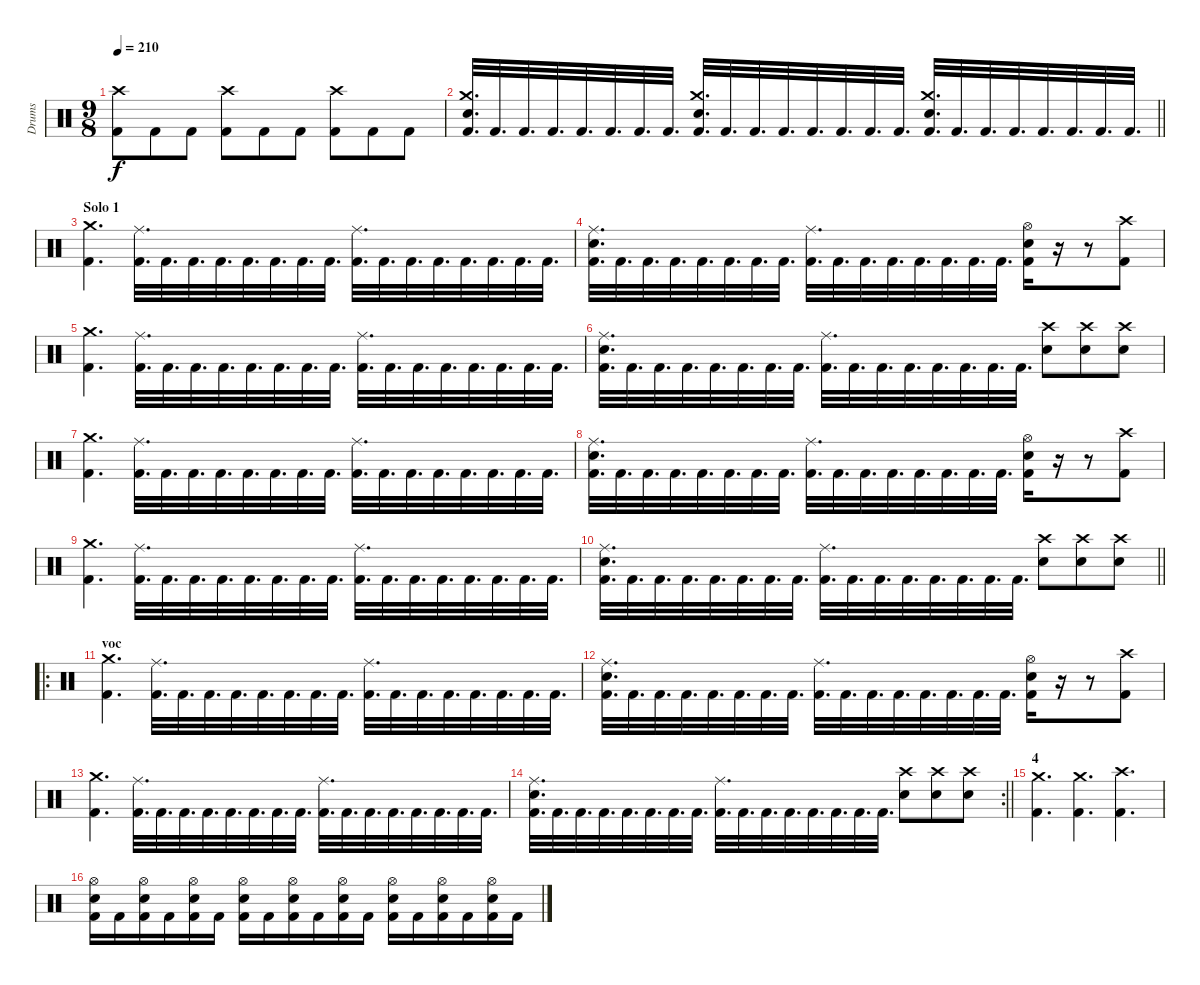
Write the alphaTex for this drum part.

\track ("Drums" "Drums") {instrument percussion}
\staff {score}
\articulation defaults
\ts (9 8)
\tempo 210
\clef neutral
\ks c
("Crash high (hit)" "Kick (hit) 2").8{dy f} "Kick (hit) 2".8 "Kick (hit) 2".8 ("Crash high (hit)" "Kick (hit) 2").8 "Kick (hit) 2".8 "Kick (hit) 2".8 ("Crash high (hit)" "Kick (hit) 2").8 "Kick (hit) 2".8 "Kick (hit) 2".8 |
\barLineRight lightlight
("Crash medium (hit)" "Electric Snare (hit)" "Kick (hit) 2").32{d} "Kick (hit) 2".32{d} "Kick (hit) 2".32{d} "Kick (hit) 2".32{d} "Kick (hit) 2".32{d} "Kick (hit) 2".32{d} "Kick (hit) 2".32{d} "Kick (hit) 2".32{d} ("Crash medium (hit)" "Electric Snare (hit)" "Kick (hit) 2").32{d} "Kick (hit) 2".32{d} "Kick (hit) 2".32{d} "Kick (hit) 2".32{d} "Kick (hit) 2".32{d} "Kick (hit) 2".32{d} "Kick (hit) 2".32{d} "Kick (hit) 2".32{d} ("Crash medium (hit)" "Electric Snare (hit)" "Kick (hit) 2").32{d} "Kick (hit) 2".32{d} "Kick (hit) 2".32{d} "Kick (hit) 2".32{d} "Kick (hit) 2".32{d} "Kick (hit) 2".32{d} "Kick (hit) 2".32{d} "Kick (hit) 2".32{d} |
\section ("" "Solo 1")
("Crash medium (hit)" "Kick (hit) 2").4{d} ("Ride (middle)" "Kick (hit) 2").32{d} "Kick (hit) 2".32{d} "Kick (hit) 2".32{d} "Kick (hit) 2".32{d} "Kick (hit) 2".32{d} "Kick (hit) 2".32{d} "Kick (hit) 2".32{d} "Kick (hit) 2".32{d} ("Ride (middle)" "Kick (hit) 2").32{d} "Kick (hit) 2".32{d} "Kick (hit) 2".32{d} "Kick (hit) 2".32{d} "Kick (hit) 2".32{d} "Kick (hit) 2".32{d} "Kick (hit) 2".32{d} "Kick (hit) 2".32{d} |
("Ride (middle)" "Electric Snare (hit)" "Kick (hit) 2").32{d} "Kick (hit) 2".32{d} "Kick (hit) 2".32{d} "Kick (hit) 2".32{d} "Kick (hit) 2".32{d} "Kick (hit) 2".32{d} "Kick (hit) 2".32{d} "Kick (hit) 2".32{d} ("Ride (middle)" "Kick (hit) 2").32{d} "Kick (hit) 2".32{d} "Kick (hit) 2".32{d} "Kick (hit) 2".32{d} "Kick (hit) 2".32{d} "Kick (hit) 2".32{d} "Kick (hit) 2".32{d} "Kick (hit) 2".32{d} ("Hi-Hat (open)" "Electric Snare (hit)" "Kick (hit) 2").16 r.16 r.8 ("Crash high (hit)" "Kick (hit) 2").8 |
("Crash medium (hit)" "Kick (hit) 2").4{d} ("Ride (middle)" "Kick (hit) 2").32{d} "Kick (hit) 2".32{d} "Kick (hit) 2".32{d} "Kick (hit) 2".32{d} "Kick (hit) 2".32{d} "Kick (hit) 2".32{d} "Kick (hit) 2".32{d} "Kick (hit) 2".32{d} ("Ride (middle)" "Kick (hit) 2").32{d} "Kick (hit) 2".32{d} "Kick (hit) 2".32{d} "Kick (hit) 2".32{d} "Kick (hit) 2".32{d} "Kick (hit) 2".32{d} "Kick (hit) 2".32{d} "Kick (hit) 2".32{d} |
("Ride (middle)" "Electric Snare (hit)" "Kick (hit) 2").32{d} "Kick (hit) 2".32{d} "Kick (hit) 2".32{d} "Kick (hit) 2".32{d} "Kick (hit) 2".32{d} "Kick (hit) 2".32{d} "Kick (hit) 2".32{d} "Kick (hit) 2".32{d} ("Ride (middle)" "Kick (hit) 2").32{d} "Kick (hit) 2".32{d} "Kick (hit) 2".32{d} "Kick (hit) 2".32{d} "Kick (hit) 2".32{d} "Kick (hit) 2".32{d} "Kick (hit) 2".32{d} "Kick (hit) 2".32{d} ("Crash high (hit)" "Electric Snare (hit)").8 ("Crash high (hit)" "Electric Snare (hit)").8 ("Crash high (hit)" "Electric Snare (hit)").8 |
("Crash medium (hit)" "Kick (hit) 2").4{d} ("Ride (middle)" "Kick (hit) 2").32{d} "Kick (hit) 2".32{d} "Kick (hit) 2".32{d} "Kick (hit) 2".32{d} "Kick (hit) 2".32{d} "Kick (hit) 2".32{d} "Kick (hit) 2".32{d} "Kick (hit) 2".32{d} ("Ride (middle)" "Kick (hit) 2").32{d} "Kick (hit) 2".32{d} "Kick (hit) 2".32{d} "Kick (hit) 2".32{d} "Kick (hit) 2".32{d} "Kick (hit) 2".32{d} "Kick (hit) 2".32{d} "Kick (hit) 2".32{d} |
("Ride (middle)" "Electric Snare (hit)" "Kick (hit) 2").32{d} "Kick (hit) 2".32{d} "Kick (hit) 2".32{d} "Kick (hit) 2".32{d} "Kick (hit) 2".32{d} "Kick (hit) 2".32{d} "Kick (hit) 2".32{d} "Kick (hit) 2".32{d} ("Ride (middle)" "Kick (hit) 2").32{d} "Kick (hit) 2".32{d} "Kick (hit) 2".32{d} "Kick (hit) 2".32{d} "Kick (hit) 2".32{d} "Kick (hit) 2".32{d} "Kick (hit) 2".32{d} "Kick (hit) 2".32{d} ("Hi-Hat (open)" "Electric Snare (hit)" "Kick (hit) 2").16 r.16 r.8 ("Crash high (hit)" "Kick (hit) 2").8 |
("Crash medium (hit)" "Kick (hit) 2").4{d} ("Ride (middle)" "Kick (hit) 2").32{d} "Kick (hit) 2".32{d} "Kick (hit) 2".32{d} "Kick (hit) 2".32{d} "Kick (hit) 2".32{d} "Kick (hit) 2".32{d} "Kick (hit) 2".32{d} "Kick (hit) 2".32{d} ("Ride (middle)" "Kick (hit) 2").32{d} "Kick (hit) 2".32{d} "Kick (hit) 2".32{d} "Kick (hit) 2".32{d} "Kick (hit) 2".32{d} "Kick (hit) 2".32{d} "Kick (hit) 2".32{d} "Kick (hit) 2".32{d} |
\barLineRight lightlight
("Ride (middle)" "Electric Snare (hit)" "Kick (hit) 2").32{d} "Kick (hit) 2".32{d} "Kick (hit) 2".32{d} "Kick (hit) 2".32{d} "Kick (hit) 2".32{d} "Kick (hit) 2".32{d} "Kick (hit) 2".32{d} "Kick (hit) 2".32{d} ("Ride (middle)" "Kick (hit) 2").32{d} "Kick (hit) 2".32{d} "Kick (hit) 2".32{d} "Kick (hit) 2".32{d} "Kick (hit) 2".32{d} "Kick (hit) 2".32{d} "Kick (hit) 2".32{d} "Kick (hit) 2".32{d} ("Crash high (hit)" "Electric Snare (hit)").8 ("Crash high (hit)" "Electric Snare (hit)").8 ("Crash high (hit)" "Electric Snare (hit)").8 |
\ro
\section ("" "voc")
("Crash medium (hit)" "Kick (hit) 2").4{d} ("Ride (middle)" "Kick (hit) 2").32{d} "Kick (hit) 2".32{d} "Kick (hit) 2".32{d} "Kick (hit) 2".32{d} "Kick (hit) 2".32{d} "Kick (hit) 2".32{d} "Kick (hit) 2".32{d} "Kick (hit) 2".32{d} ("Ride (middle)" "Kick (hit) 2").32{d} "Kick (hit) 2".32{d} "Kick (hit) 2".32{d} "Kick (hit) 2".32{d} "Kick (hit) 2".32{d} "Kick (hit) 2".32{d} "Kick (hit) 2".32{d} "Kick (hit) 2".32{d} |
("Ride (middle)" "Electric Snare (hit)" "Kick (hit) 2").32{d} "Kick (hit) 2".32{d} "Kick (hit) 2".32{d} "Kick (hit) 2".32{d} "Kick (hit) 2".32{d} "Kick (hit) 2".32{d} "Kick (hit) 2".32{d} "Kick (hit) 2".32{d} ("Ride (middle)" "Kick (hit) 2").32{d} "Kick (hit) 2".32{d} "Kick (hit) 2".32{d} "Kick (hit) 2".32{d} "Kick (hit) 2".32{d} "Kick (hit) 2".32{d} "Kick (hit) 2".32{d} "Kick (hit) 2".32{d} ("Hi-Hat (open)" "Electric Snare (hit)" "Kick (hit) 2").16 r.16 r.8 ("Crash high (hit)" "Kick (hit) 2").8 |
("Crash medium (hit)" "Kick (hit) 2").4{d} ("Ride (middle)" "Kick (hit) 2").32{d} "Kick (hit) 2".32{d} "Kick (hit) 2".32{d} "Kick (hit) 2".32{d} "Kick (hit) 2".32{d} "Kick (hit) 2".32{d} "Kick (hit) 2".32{d} "Kick (hit) 2".32{d} ("Ride (middle)" "Kick (hit) 2").32{d} "Kick (hit) 2".32{d} "Kick (hit) 2".32{d} "Kick (hit) 2".32{d} "Kick (hit) 2".32{d} "Kick (hit) 2".32{d} "Kick (hit) 2".32{d} "Kick (hit) 2".32{d} |
\rc 2
\barLineRight lightlight
("Ride (middle)" "Electric Snare (hit)" "Kick (hit) 2").32{d} "Kick (hit) 2".32{d} "Kick (hit) 2".32{d} "Kick (hit) 2".32{d} "Kick (hit) 2".32{d} "Kick (hit) 2".32{d} "Kick (hit) 2".32{d} "Kick (hit) 2".32{d} ("Ride (middle)" "Kick (hit) 2").32{d} "Kick (hit) 2".32{d} "Kick (hit) 2".32{d} "Kick (hit) 2".32{d} "Kick (hit) 2".32{d} "Kick (hit) 2".32{d} "Kick (hit) 2".32{d} "Kick (hit) 2".32{d} ("Crash high (hit)" "Electric Snare (hit)").8 ("Crash high (hit)" "Electric Snare (hit)").8 ("Crash high (hit)" "Electric Snare (hit)").8 |
\section ("" "4")
("Crash medium (hit)" "Kick (hit) 2").4{d} ("Crash medium (hit)" "Kick (hit) 2").4{d} ("Crash high (hit)" "Kick (hit) 2").4{d} |
("Hi-Hat (open)" "Electric Snare (hit)" "Kick (hit) 2").16 "Kick (hit) 2".16 ("Hi-Hat (open)" "Electric Snare (hit)" "Kick (hit) 2").16 "Kick (hit) 2".16 ("Hi-Hat (open)" "Electric Snare (hit)" "Kick (hit) 2").16 "Kick (hit) 2".16 ("Hi-Hat (open)" "Electric Snare (hit)" "Kick (hit) 2").16 "Kick (hit) 2".16 ("Hi-Hat (open)" "Electric Snare (hit)" "Kick (hit) 2").16 "Kick (hit) 2".16 ("Hi-Hat (open)" "Electric Snare (hit)" "Kick (hit) 2").16 "Kick (hit) 2".16 ("Hi-Hat (open)" "Electric Snare (hit)" "Kick (hit) 2").16 "Kick (hit) 2".16 ("Hi-Hat (open)" "Electric Snare (hit)" "Kick (hit) 2").16 "Kick (hit) 2".16 ("Hi-Hat (open)" "Electric Snare (hit)" "Kick (hit) 2").16 "Kick (hit) 2".16
